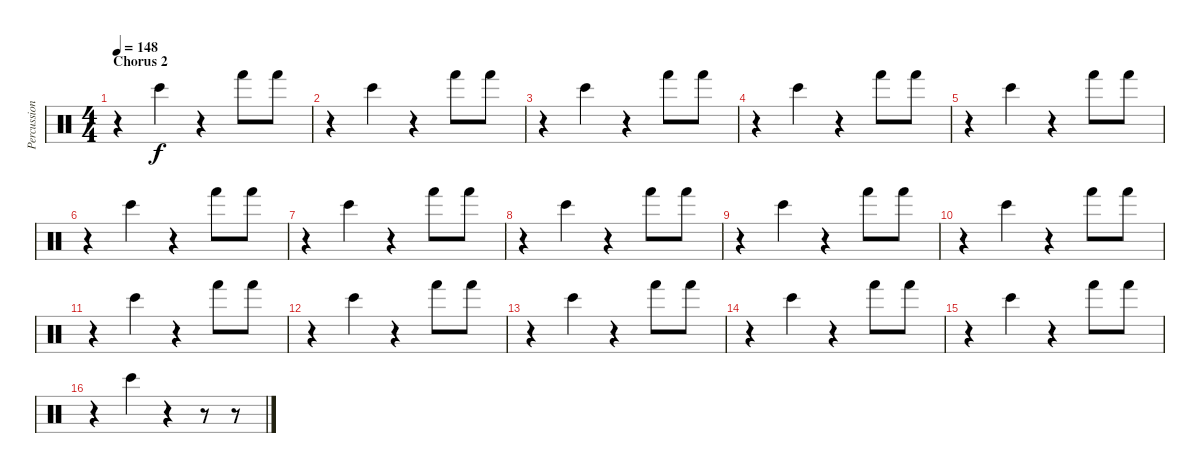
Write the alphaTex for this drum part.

\track ("Percussions" "Percussion") {instrument percussion}
\staff {score}
\articulation defaults
\ts (4 4)
\section ("" "Chorus 2")
\tempo 148
\clef neutral
\ks c
r.4{dy f} "Bongo High (hit)".4 r.4 "Hand (hit)".8 "Hand (hit)".8 |
r.4 "Bongo High (hit)".4 r.4 "Hand (hit)".8 "Hand (hit)".8 |
r.4 "Bongo High (hit)".4 r.4 "Hand (hit)".8 "Hand (hit)".8 |
r.4 "Bongo High (hit)".4 r.4 "Hand (hit)".8 "Hand (hit)".8 |
r.4 "Bongo High (hit)".4 r.4 "Hand (hit)".8 "Hand (hit)".8 |
r.4 "Bongo High (hit)".4 r.4 "Hand (hit)".8 "Hand (hit)".8 |
r.4 "Bongo High (hit)".4 r.4 "Hand (hit)".8 "Hand (hit)".8 |
r.4 "Bongo High (hit)".4 r.4 "Hand (hit)".8 "Hand (hit)".8 |
r.4 "Bongo High (hit)".4 r.4 "Hand (hit)".8 "Hand (hit)".8 |
r.4 "Bongo High (hit)".4 r.4 "Hand (hit)".8 "Hand (hit)".8 |
r.4 "Bongo High (hit)".4 r.4 "Hand (hit)".8 "Hand (hit)".8 |
r.4 "Bongo High (hit)".4 r.4 "Hand (hit)".8 "Hand (hit)".8 |
r.4 "Bongo High (hit)".4 r.4 "Hand (hit)".8 "Hand (hit)".8 |
r.4 "Bongo High (hit)".4 r.4 "Hand (hit)".8 "Hand (hit)".8 |
r.4 "Bongo High (hit)".4 r.4 "Hand (hit)".8 "Hand (hit)".8 |
r.4 "Bongo High (hit)".4 r.4 r.8 r.8
